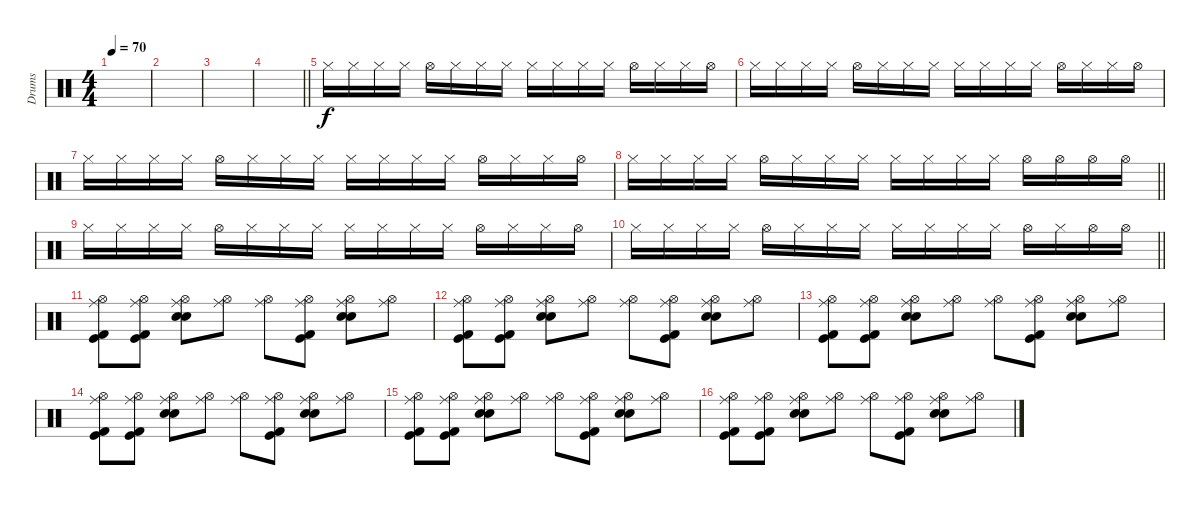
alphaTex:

\track ("Drums" "Drums") {instrument percussion}
\staff {score}
\articulation defaults
\ts (4 4)
\tempo 70
\clef neutral
\ks c
|
|
|
\barLineRight lightlight
|
"Hi-Hat (closed)".16 "Hi-Hat (closed)".16 "Hi-Hat (closed)".16 "Hi-Hat (closed)".16 "Hi-Hat (open)".16 "Hi-Hat (closed)".16 "Hi-Hat (closed)".16 "Hi-Hat (closed)".16 "Hi-Hat (closed)".16 "Hi-Hat (closed)".16 "Hi-Hat (closed)".16 "Hi-Hat (closed)".16 "Hi-Hat (open)".16 "Hi-Hat (closed)".16 "Hi-Hat (closed)".16 "Hi-Hat (open)".16 |
"Hi-Hat (closed)".16 "Hi-Hat (closed)".16 "Hi-Hat (closed)".16 "Hi-Hat (closed)".16 "Hi-Hat (open)".16 "Hi-Hat (closed)".16 "Hi-Hat (closed)".16 "Hi-Hat (closed)".16 "Hi-Hat (closed)".16 "Hi-Hat (closed)".16 "Hi-Hat (closed)".16 "Hi-Hat (closed)".16 "Hi-Hat (open)".16 "Hi-Hat (closed)".16 "Hi-Hat (closed)".16 "Hi-Hat (open)".16 |
"Hi-Hat (closed)".16 "Hi-Hat (closed)".16 "Hi-Hat (closed)".16 "Hi-Hat (closed)".16 "Hi-Hat (open)".16 "Hi-Hat (closed)".16 "Hi-Hat (closed)".16 "Hi-Hat (closed)".16 "Hi-Hat (closed)".16 "Hi-Hat (closed)".16 "Hi-Hat (closed)".16 "Hi-Hat (closed)".16 "Hi-Hat (open)".16 "Hi-Hat (closed)".16 "Hi-Hat (closed)".16 "Hi-Hat (open)".16 |
\barLineRight lightlight "Hi-Hat (closed)".16 "Hi-Hat (closed)".16 "Hi-Hat (closed)".16 "Hi-Hat (closed)".16 "Hi-Hat (open)".16 "Hi-Hat (closed)".16 "Hi-Hat (closed)".16 "Hi-Hat (closed)".16 "Hi-Hat (closed)".16 "Hi-Hat (closed)".16 "Hi-Hat (closed)".16 "Hi-Hat (closed)".16 "Hi-Hat (open)".16 "Hi-Hat (open)".16 "Hi-Hat (open)".16 "Hi-Hat (open)".16
|
"Hi-Hat (closed)".16 "Hi-Hat (closed)".16 "Hi-Hat (closed)".16 "Hi-Hat (closed)".16 "Hi-Hat (open)".16 "Hi-Hat (closed)".16 "Hi-Hat (closed)".16 "Hi-Hat (closed)".16 "Hi-Hat (closed)".16 "Hi-Hat (closed)".16 "Hi-Hat (closed)".16 "Hi-Hat (closed)".16 "Hi-Hat (open)".16 "Hi-Hat (closed)".16 "Hi-Hat (closed)".16 "Hi-Hat (open)".16 |
\barLineRight lightlight "Hi-Hat (closed)".16 "Hi-Hat (closed)".16 "Hi-Hat (closed)".16 "Hi-Hat (closed)".16 "Hi-Hat (open)".16 "Hi-Hat (closed)".16 "Hi-Hat (closed)".16 "Hi-Hat (closed)".16 "Hi-Hat (closed)".16 "Hi-Hat (closed)".16 "Hi-Hat (closed)".16 "Hi-Hat (closed)".16 "Hi-Hat (open)".16 "Hi-Hat (closed)".16 "Hi-Hat (open)".16 "Hi-Hat (open)".16
|
\section ("" "")
("Ride (middle)" "Hi-Hat (open)" "Kick (hit)" "Kick (hit) 2").8 ("Ride (middle)" "Hi-Hat (open)" "Kick (hit)" "Kick (hit) 2").8 ("Ride (middle)" "Hi-Hat (open)" "Snare (hit) 2" "Electric Snare (hit)").8 ("Ride (middle)" "Hi-Hat (open)").8 ("Ride (middle)" "Hi-Hat (open)").8 ("Ride (middle)" "Hi-Hat (open)" "Kick (hit)" "Kick (hit) 2").8 ("Ride (middle)" "Hi-Hat (open)" "Snare (hit) 2" "Electric Snare (hit)").8 ("Ride (middle)" "Hi-Hat (open)").8 |
("Ride (middle)" "Hi-Hat (open)" "Kick (hit)" "Kick (hit) 2").8 ("Ride (middle)" "Hi-Hat (open)" "Kick (hit)" "Kick (hit) 2").8 ("Ride (middle)" "Hi-Hat (open)" "Snare (hit) 2" "Electric Snare (hit)").8 ("Ride (middle)" "Hi-Hat (open)").8 ("Ride (middle)" "Hi-Hat (open)").8 ("Ride (middle)" "Hi-Hat (open)" "Kick (hit)" "Kick (hit) 2").8 ("Ride (middle)" "Hi-Hat (open)" "Snare (hit) 2" "Electric Snare (hit)").8 ("Ride (middle)" "Hi-Hat (open)").8 |
("Ride (middle)" "Hi-Hat (open)" "Kick (hit)" "Kick (hit) 2").8 ("Ride (middle)" "Hi-Hat (open)" "Kick (hit)" "Kick (hit) 2").8 ("Ride (middle)" "Hi-Hat (open)" "Snare (hit) 2" "Electric Snare (hit)").8 ("Ride (middle)" "Hi-Hat (open)").8 ("Ride (middle)" "Hi-Hat (open)").8 ("Ride (middle)" "Hi-Hat (open)" "Kick (hit)" "Kick (hit) 2").8 ("Ride (middle)" "Hi-Hat (open)" "Snare (hit) 2" "Electric Snare (hit)").8 ("Ride (middle)" "Hi-Hat (open)").8 |
("Ride (middle)" "Hi-Hat (open)" "Kick (hit)" "Kick (hit) 2").8 ("Ride (middle)" "Hi-Hat (open)" "Kick (hit)" "Kick (hit) 2").8 ("Ride (middle)" "Hi-Hat (open)" "Snare (hit) 2" "Electric Snare (hit)").8 ("Ride (middle)" "Hi-Hat (open)").8 ("Ride (middle)" "Hi-Hat (open)").8 ("Ride (middle)" "Hi-Hat (open)" "Kick (hit)" "Kick (hit) 2").8 ("Ride (middle)" "Hi-Hat (open)" "Snare (hit) 2" "Electric Snare (hit)").8 ("Ride (middle)" "Hi-Hat (open)").8 |
("Ride (middle)" "Hi-Hat (open)" "Kick (hit)" "Kick (hit) 2").8 ("Ride (middle)" "Hi-Hat (open)" "Kick (hit)" "Kick (hit) 2").8 ("Ride (middle)" "Hi-Hat (open)" "Snare (hit) 2" "Electric Snare (hit)").8 ("Ride (middle)" "Hi-Hat (open)").8 ("Ride (middle)" "Hi-Hat (open)").8 ("Ride (middle)" "Hi-Hat (open)" "Kick (hit)" "Kick (hit) 2").8 ("Ride (middle)" "Hi-Hat (open)" "Snare (hit) 2" "Electric Snare (hit)").8 ("Ride (middle)" "Hi-Hat (open)").8 |
("Ride (middle)" "Hi-Hat (open)" "Kick (hit)" "Kick (hit) 2").8 ("Ride (middle)" "Hi-Hat (open)" "Kick (hit)" "Kick (hit) 2").8 ("Ride (middle)" "Hi-Hat (open)" "Snare (hit) 2" "Electric Snare (hit)").8 ("Ride (middle)" "Hi-Hat (open)").8 ("Ride (middle)" "Hi-Hat (open)").8 ("Ride (middle)" "Hi-Hat (open)" "Kick (hit)" "Kick (hit) 2").8 ("Ride (middle)" "Hi-Hat (open)" "Snare (hit) 2" "Electric Snare (hit)").8 ("Ride (middle)" "Hi-Hat (open)").8
